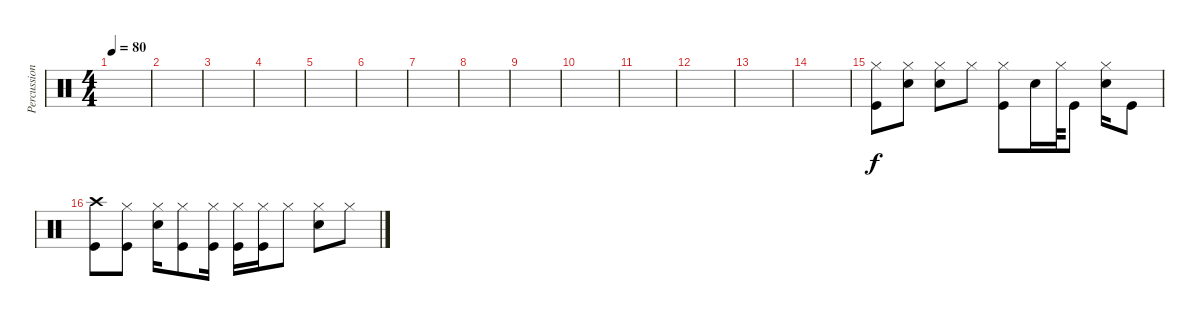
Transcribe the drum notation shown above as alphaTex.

\track ("Percussion" "Percussion") {instrument percussion}
\staff {score}
\articulation defaults
\ts (4 4)
\tempo 80
\clef neutral
\ks c
|
|
|
|
|
|
|
|
|
|
|
|
|
|
("Hi-Hat (closed)" "Kick (hit)").8 ("Hi-Hat (closed)" "Snare (hit) 2").8 ("Hi-Hat (closed)" "Snare (hit) 2").8 "Hi-Hat (closed)".8 ("Hi-Hat (closed)" "Kick (hit)").8 "Snare (hit) 2".16 "Hi-Hat (closed)".64 "Kick (hit)".8 ("Hi-Hat (closed)" "Snare (hit) 2").16 "Kick (hit)".8 |
("Kick (hit)" "Crash high (hit)").8 ("Hi-Hat (closed)" "Kick (hit)").8 ("Hi-Hat (closed)" "Snare (hit) 2").16 ("Hi-Hat (closed)" "Kick (hit)").8 ("Hi-Hat (closed)" "Kick (hit)").16 ("Hi-Hat (closed)" "Kick (hit)").16 ("Hi-Hat (closed)" "Kick (hit)").16 "Hi-Hat (closed)".8 ("Hi-Hat (closed)" "Snare (hit) 2").8 "Hi-Hat (closed)".8
